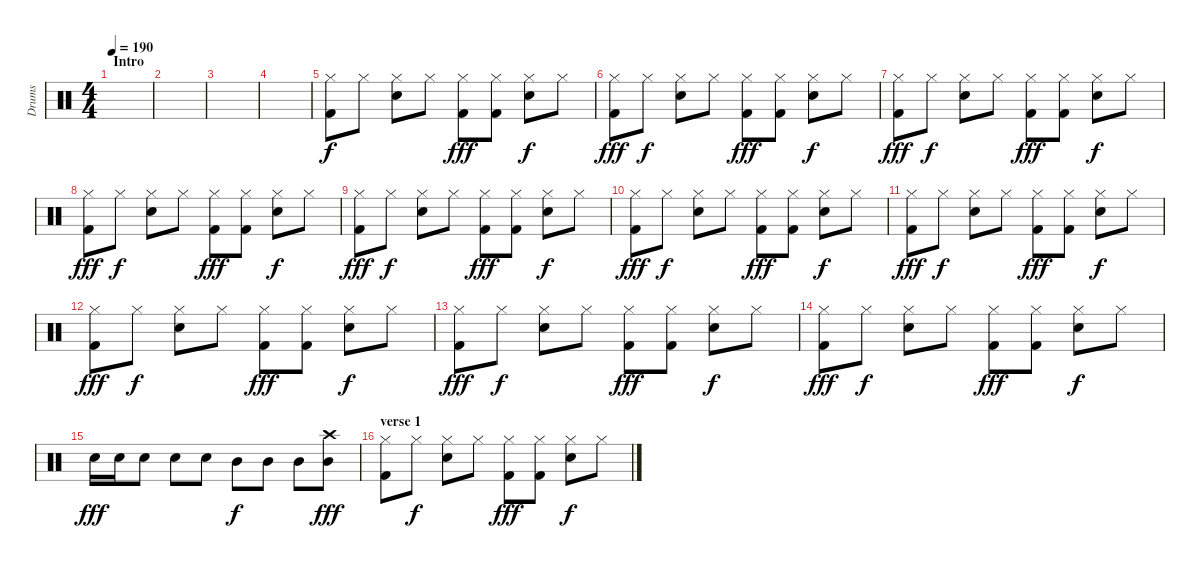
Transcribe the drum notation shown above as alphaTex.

\track ("Drums" "Drums") {instrument percussion}
\staff {score}
\articulation defaults
\ts (4 4)
\section ("" "Intro")
\tempo 190
\clef neutral
\ks c
|
|
|
|
("Hi-Hat (closed)" "Kick (hit) 2").8 "Hi-Hat (closed)".8{dy f} ("Hi-Hat (closed)" "Electric Snare (hit)").8 "Hi-Hat (closed)".8 ("Hi-Hat (closed)" "Kick (hit) 2").8{dy fff} ("Hi-Hat (closed)" "Kick (hit) 2").8 ("Hi-Hat (closed)" "Electric Snare (hit)").8{dy f} "Hi-Hat (closed)".8 |
("Hi-Hat (closed)" "Kick (hit) 2").8{dy fff} "Hi-Hat (closed)".8{dy f} ("Hi-Hat (closed)" "Electric Snare (hit)").8 "Hi-Hat (closed)".8 ("Hi-Hat (closed)" "Kick (hit) 2").8{dy fff} ("Hi-Hat (closed)" "Kick (hit) 2").8 ("Hi-Hat (closed)" "Electric Snare (hit)").8{dy f} "Hi-Hat (closed)".8 |
("Hi-Hat (closed)" "Kick (hit) 2").8{dy fff} "Hi-Hat (closed)".8{dy f} ("Hi-Hat (closed)" "Electric Snare (hit)").8 "Hi-Hat (closed)".8 ("Hi-Hat (closed)" "Kick (hit) 2").8{dy fff} ("Hi-Hat (closed)" "Kick (hit) 2").8 ("Hi-Hat (closed)" "Electric Snare (hit)").8{dy f} "Hi-Hat (closed)".8 |
("Hi-Hat (closed)" "Kick (hit) 2").8{dy fff} "Hi-Hat (closed)".8{dy f} ("Hi-Hat (closed)" "Electric Snare (hit)").8 "Hi-Hat (closed)".8 ("Hi-Hat (closed)" "Kick (hit) 2").8{dy fff} ("Hi-Hat (closed)" "Kick (hit) 2").8 ("Hi-Hat (closed)" "Electric Snare (hit)").8{dy f} "Hi-Hat (closed)".8 |
("Hi-Hat (closed)" "Kick (hit) 2").8{dy fff} "Hi-Hat (closed)".8{dy f} ("Hi-Hat (closed)" "Electric Snare (hit)").8 "Hi-Hat (closed)".8 ("Hi-Hat (closed)" "Kick (hit) 2").8{dy fff} ("Hi-Hat (closed)" "Kick (hit) 2").8 ("Hi-Hat (closed)" "Electric Snare (hit)").8{dy f} "Hi-Hat (closed)".8 |
("Hi-Hat (closed)" "Kick (hit) 2").8{dy fff} "Hi-Hat (closed)".8{dy f} ("Hi-Hat (closed)" "Electric Snare (hit)").8 "Hi-Hat (closed)".8 ("Hi-Hat (closed)" "Kick (hit) 2").8{dy fff} ("Hi-Hat (closed)" "Kick (hit) 2").8 ("Hi-Hat (closed)" "Electric Snare (hit)").8{dy f} "Hi-Hat (closed)".8 |
("Hi-Hat (closed)" "Kick (hit) 2").8{dy fff} "Hi-Hat (closed)".8{dy f} ("Hi-Hat (closed)" "Electric Snare (hit)").8 "Hi-Hat (closed)".8 ("Hi-Hat (closed)" "Kick (hit) 2").8{dy fff} ("Hi-Hat (closed)" "Kick (hit) 2").8 ("Hi-Hat (closed)" "Electric Snare (hit)").8{dy f} "Hi-Hat (closed)".8 |
("Hi-Hat (closed)" "Kick (hit) 2").8{dy fff} "Hi-Hat (closed)".8{dy f} ("Hi-Hat (closed)" "Electric Snare (hit)").8 "Hi-Hat (closed)".8 ("Hi-Hat (closed)" "Kick (hit) 2").8{dy fff} ("Hi-Hat (closed)" "Kick (hit) 2").8 ("Hi-Hat (closed)" "Electric Snare (hit)").8{dy f} "Hi-Hat (closed)".8 |
("Hi-Hat (closed)" "Kick (hit) 2").8{dy fff} "Hi-Hat (closed)".8{dy f} ("Hi-Hat (closed)" "Electric Snare (hit)").8 "Hi-Hat (closed)".8 ("Hi-Hat (closed)" "Kick (hit) 2").8{dy fff} ("Hi-Hat (closed)" "Kick (hit) 2").8 ("Hi-Hat (closed)" "Electric Snare (hit)").8{dy f} "Hi-Hat (closed)".8 |
("Hi-Hat (closed)" "Kick (hit) 2").8{dy fff} "Hi-Hat (closed)".8{dy f} ("Hi-Hat (closed)" "Electric Snare (hit)").8 "Hi-Hat (closed)".8 ("Hi-Hat (closed)" "Kick (hit) 2").8{dy fff} ("Hi-Hat (closed)" "Kick (hit) 2").8 ("Hi-Hat (closed)" "Electric Snare (hit)").8{dy f} "Hi-Hat (closed)".8 |
"Electric Snare (hit)".16{dy fff} "Electric Snare (hit)".16 "Electric Snare (hit)".8 "Electric Snare (hit)".8 "Electric Snare (hit)".8 "Mid Tom (hit)".8{dy f} "Mid Tom (hit)".8 "Mid Tom (hit)".8 ("Crash high (hit)" "Mid Tom (hit)").8{dy fff} |
\section ("" "verse 1")
("Hi-Hat (closed)" "Kick (hit) 2").8 "Hi-Hat (closed)".8{dy f} ("Hi-Hat (closed)" "Electric Snare (hit)").8 "Hi-Hat (closed)".8 ("Hi-Hat (closed)" "Kick (hit) 2").8{dy fff} ("Hi-Hat (closed)" "Kick (hit) 2").8 ("Hi-Hat (closed)" "Electric Snare (hit)").8{dy f} "Hi-Hat (closed)".8
